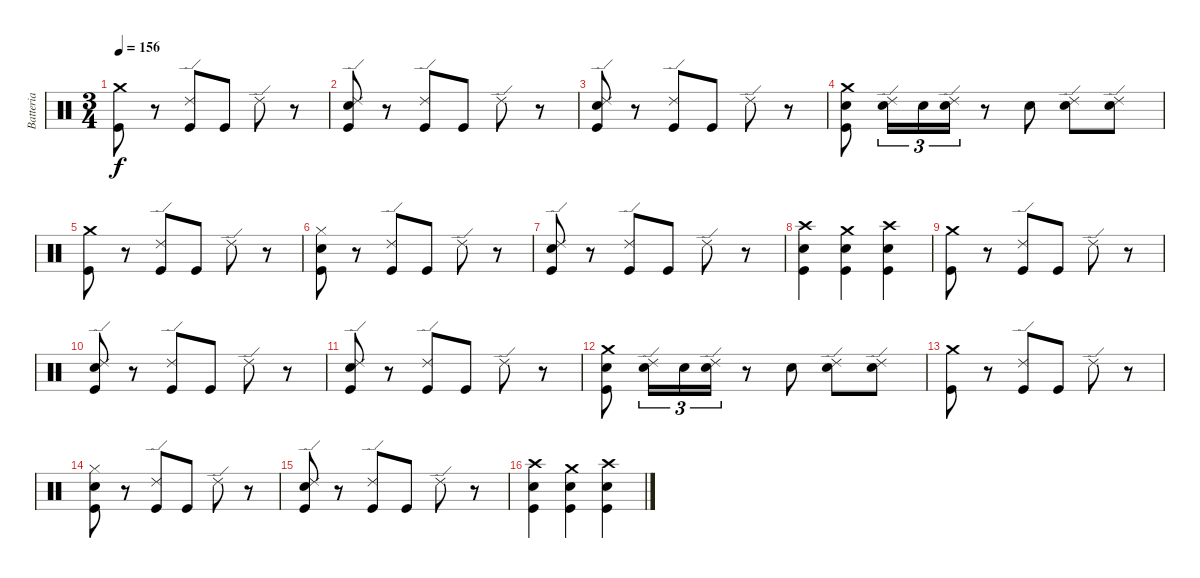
\track ("Batteria" "Batteria") {instrument percussion}
\staff {score}
\articulation defaults
\ts (3 4)
\tempo 156
\clef neutral
\ks c
("Crash medium (hit)" "Kick (hit)").8{dy f} r.8 ("Ride (edge) 2" "Kick (hit)").8 "Kick (hit)".8 "Ride (edge) 2".8 r.8 |
("Ride (edge) 2" "Electric Snare (hit)" "Kick (hit)").8 r.8 ("Ride (edge) 2" "Kick (hit)").8 "Kick (hit)".8 "Ride (edge) 2".8 r.8 |
("Ride (edge) 2" "Electric Snare (hit)" "Kick (hit)").8 r.8 ("Ride (edge) 2" "Kick (hit)").8 "Kick (hit)".8 "Ride (edge) 2".8 r.8 |
("Crash medium (hit)" "Electric Snare (hit)" "Kick (hit)").8 ("Ride (edge) 2" "Electric Snare (hit)").16{tu (3 2)} "Electric Snare (hit)".16{tu (3 2)} ("Ride (edge) 2" "Electric Snare (hit)").16{tu (3 2)} r.8 "Electric Snare (hit)".8 ("Ride (edge) 2" "Electric Snare (hit)").8 ("Ride (edge) 2" "Electric Snare (hit)").8 |
("Crash medium (hit)" "Kick (hit)").8 r.8 ("Ride (edge) 2" "Kick (hit)").8 "Kick (hit)".8 "Ride (edge) 2".8 r.8 |
("Hi-Hat (closed)" "Electric Snare (hit)" "Kick (hit)").8 r.8 ("Ride (edge) 2" "Kick (hit)").8 "Kick (hit)".8 "Ride (edge) 2".8 r.8 |
("Ride (edge) 2" "Electric Snare (hit)" "Kick (hit)").8 r.8 ("Ride (edge) 2" "Kick (hit)").8 "Kick (hit)".8 "Ride (edge) 2".8 r.8 |
("Crash high (hit)" "Electric Snare (hit)" "Kick (hit)").4 ("Crash medium (hit)" "Electric Snare (hit)" "Kick (hit)").4 ("Crash high (hit)" "Electric Snare (hit)" "Kick (hit)").4 |
("Crash medium (hit)" "Kick (hit)").8 r.8 ("Ride (edge) 2" "Kick (hit)").8 "Kick (hit)".8 "Ride (edge) 2".8 r.8 |
("Ride (edge) 2" "Electric Snare (hit)" "Kick (hit)").8 r.8 ("Ride (edge) 2" "Kick (hit)").8 "Kick (hit)".8 "Ride (edge) 2".8 r.8 |
("Ride (edge) 2" "Electric Snare (hit)" "Kick (hit)").8 r.8 ("Ride (edge) 2" "Kick (hit)").8 "Kick (hit)".8 "Ride (edge) 2".8 r.8 |
("Crash medium (hit)" "Electric Snare (hit)" "Kick (hit)").8 ("Ride (edge) 2" "Electric Snare (hit)").16{tu (3 2)} "Electric Snare (hit)".16{tu (3 2)} ("Ride (edge) 2" "Electric Snare (hit)").16{tu (3 2)} r.8 "Electric Snare (hit)".8 ("Ride (edge) 2" "Electric Snare (hit)").8 ("Ride (edge) 2" "Electric Snare (hit)").8 |
("Crash medium (hit)" "Kick (hit)").8 r.8 ("Ride (edge) 2" "Kick (hit)").8 "Kick (hit)".8 "Ride (edge) 2".8 r.8 |
("Hi-Hat (closed)" "Electric Snare (hit)" "Kick (hit)").8 r.8 ("Ride (edge) 2" "Kick (hit)").8 "Kick (hit)".8 "Ride (edge) 2".8 r.8 |
("Ride (edge) 2" "Electric Snare (hit)" "Kick (hit)").8 r.8 ("Ride (edge) 2" "Kick (hit)").8 "Kick (hit)".8 "Ride (edge) 2".8 r.8 |
("Crash high (hit)" "Electric Snare (hit)" "Kick (hit)").4 ("Crash medium (hit)" "Electric Snare (hit)" "Kick (hit)").4 ("Crash high (hit)" "Electric Snare (hit)" "Kick (hit)").4
